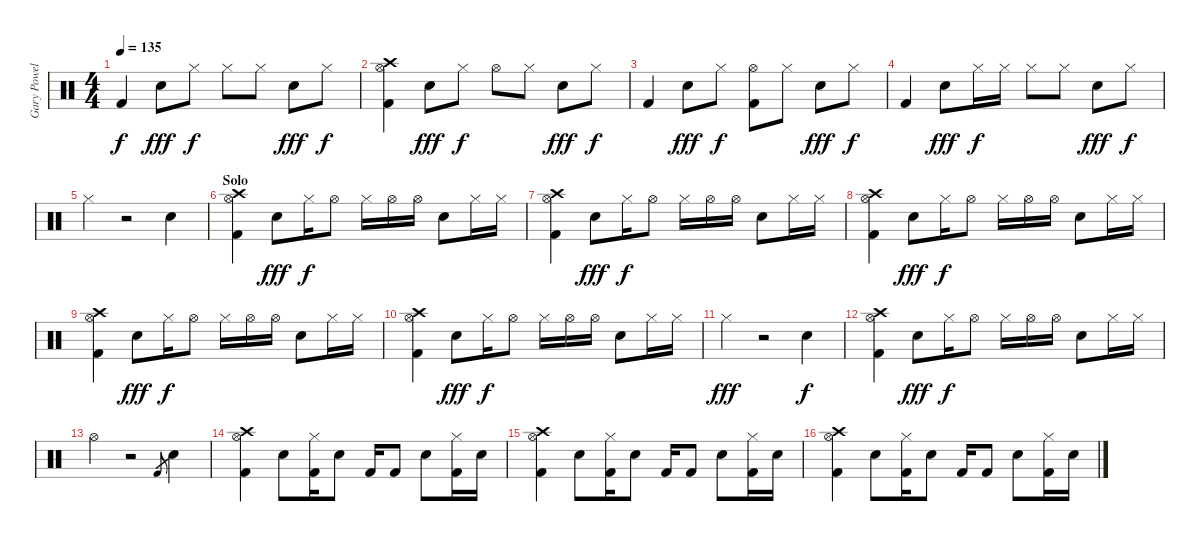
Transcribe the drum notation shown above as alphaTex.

\track ("Gary Powell" "Gary Powel") {instrument percussion}
\staff {score}
\articulation defaults
\ts (4 4)
\tempo 135
\clef neutral
\ks c "Kick (hit) 2".4{dy f} "Electric Snare (hit)".8{dy fff} "Hi-Hat (closed)".8{dy f} "Hi-Hat (closed)".8 "Hi-Hat (closed)".8 "Electric Snare (hit)".8{dy fff} "Hi-Hat (closed)".8{dy f}
|
("Hi-Hat (open)" "Kick (hit) 2" "Crash high (hit)").4 "Electric Snare (hit)".8{dy fff} "Hi-Hat (closed)".8{dy f} "Hi-Hat (open)".8 "Hi-Hat (closed)".8 "Electric Snare (hit)".8{dy fff} "Hi-Hat (closed)".8{dy f} |
"Kick (hit) 2".4 "Electric Snare (hit)".8{dy fff} "Hi-Hat (closed)".8{dy f} ("Hi-Hat (open)" "Kick (hit) 2").8 "Hi-Hat (closed)".8 "Electric Snare (hit)".8{dy fff} "Hi-Hat (closed)".8{dy f} |
"Kick (hit) 2".4 "Electric Snare (hit)".8{dy fff} "Hi-Hat (closed)".16{dy f} "Hi-Hat (closed)".16 "Hi-Hat (closed)".8 "Hi-Hat (closed)".8 "Electric Snare (hit)".8{dy fff} "Hi-Hat (closed)".8{dy f} |
"Hi-Hat (closed)".4 r.2 "Electric Snare (hit)".4 |
\section ("" "Solo")
("Hi-Hat (open)" "Kick (hit) 2" "Crash high (hit)").4 "Electric Snare (hit)".8{dy fff} "Hi-Hat (closed)".16{dy f} "Hi-Hat (open)".8 "Hi-Hat (closed)".16 "Hi-Hat (open)".16 "Hi-Hat (open)".16 "Electric Snare (hit)".8 "Hi-Hat (closed)".16 "Hi-Hat (closed)".16 |
("Hi-Hat (open)" "Kick (hit) 2" "Crash high (hit)").4 "Electric Snare (hit)".8{dy fff} "Hi-Hat (closed)".16{dy f} "Hi-Hat (open)".8 "Hi-Hat (closed)".16 "Hi-Hat (open)".16 "Hi-Hat (open)".16 "Electric Snare (hit)".8 "Hi-Hat (closed)".16 "Hi-Hat (closed)".16 |
("Hi-Hat (open)" "Kick (hit) 2" "Crash high (hit)").4 "Electric Snare (hit)".8{dy fff} "Hi-Hat (closed)".16{dy f} "Hi-Hat (open)".8 "Hi-Hat (closed)".16 "Hi-Hat (open)".16 "Hi-Hat (open)".16 "Electric Snare (hit)".8 "Hi-Hat (closed)".16 "Hi-Hat (closed)".16 |
("Hi-Hat (open)" "Kick (hit) 2" "Crash high (hit)").4 "Electric Snare (hit)".8{dy fff} "Hi-Hat (closed)".16{dy f} "Hi-Hat (open)".8 "Hi-Hat (closed)".16 "Hi-Hat (open)".16 "Hi-Hat (open)".16 "Electric Snare (hit)".8 "Hi-Hat (closed)".16 "Hi-Hat (closed)".16 |
("Hi-Hat (open)" "Kick (hit) 2" "Crash high (hit)").4 "Electric Snare (hit)".8{dy fff} "Hi-Hat (closed)".16{dy f} "Hi-Hat (open)".8 "Hi-Hat (closed)".16 "Hi-Hat (open)".16 "Hi-Hat (open)".16 "Electric Snare (hit)".8 "Hi-Hat (closed)".16 "Hi-Hat (closed)".16 |
"Hi-Hat (closed)".4{dy fff} r.2 "Electric Snare (hit)".4{dy f} |
("Hi-Hat (open)" "Kick (hit) 2" "Crash high (hit)").4 "Electric Snare (hit)".8{dy fff} "Hi-Hat (closed)".16{dy f} "Hi-Hat (open)".8 "Hi-Hat (closed)".16 "Hi-Hat (open)".16 "Hi-Hat (open)".16 "Electric Snare (hit)".8 "Hi-Hat (closed)".16 "Hi-Hat (closed)".16 |
"Hi-Hat (open)".4 r.2 "Kick (hit) 2".8{gr} "Electric Snare (hit)".4 |
("Hi-Hat (open)" "Kick (hit) 2" "Crash high (hit)").4 "Electric Snare (hit)".8 ("Hi-Hat (closed)" "Kick (hit) 2").16 "Electric Snare (hit)".8 "Kick (hit) 2".16 "Kick (hit) 2".8 "Electric Snare (hit)".8 ("Hi-Hat (closed)" "Kick (hit) 2").16 "Electric Snare (hit)".16 |
("Hi-Hat (open)" "Kick (hit) 2" "Crash high (hit)").4 "Electric Snare (hit)".8 ("Hi-Hat (closed)" "Kick (hit) 2").16 "Electric Snare (hit)".8 "Kick (hit) 2".16 "Kick (hit) 2".8 "Electric Snare (hit)".8 ("Hi-Hat (closed)" "Kick (hit) 2").16 "Electric Snare (hit)".16 |
("Hi-Hat (open)" "Kick (hit) 2" "Crash high (hit)").4 "Electric Snare (hit)".8 ("Hi-Hat (closed)" "Kick (hit) 2").16 "Electric Snare (hit)".8 "Kick (hit) 2".16 "Kick (hit) 2".8 "Electric Snare (hit)".8 ("Hi-Hat (closed)" "Kick (hit) 2").16 "Electric Snare (hit)".16
